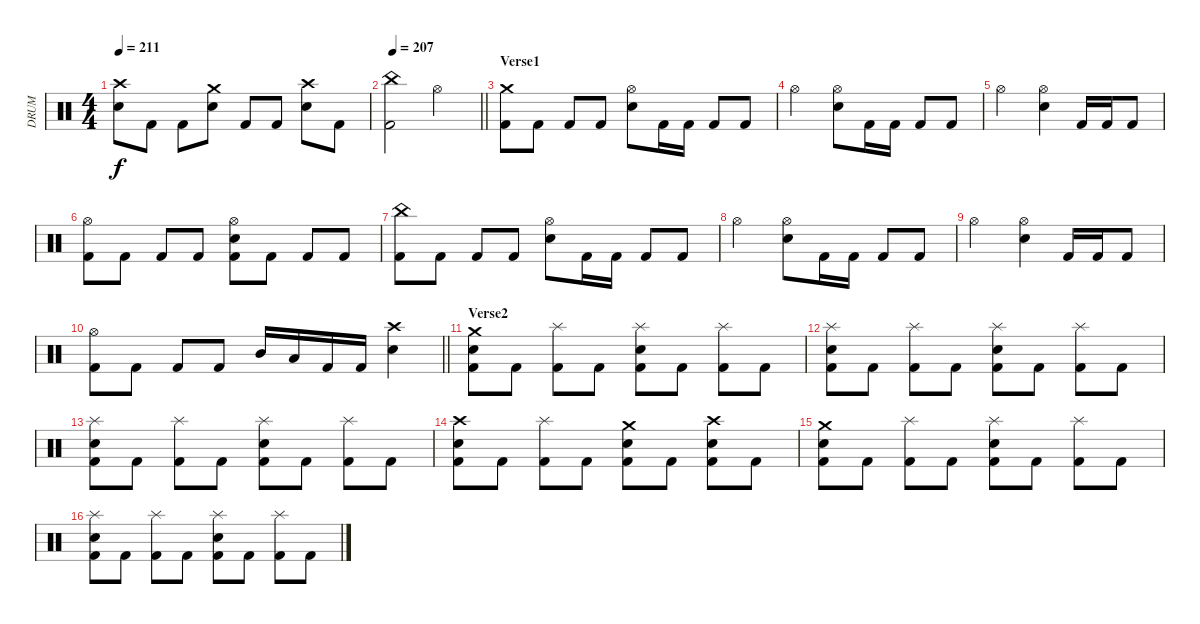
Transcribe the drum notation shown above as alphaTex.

\track ("DRUM" "DRUM") {instrument percussion bank 102}
\staff {score}
\articulation defaults
\ts (4 4)
\tempo 211
\clef neutral
\ks c
("Crash high (hit)" "Electric Snare (hit)").8{dy f} "Kick (hit) 2".8 "Kick (hit) 2".8 ("Crash medium (hit)" "Electric Snare (hit)").8 "Kick (hit) 2".8 "Kick (hit) 2".8 ("Crash high (hit)" "Electric Snare (hit)").8 "Kick (hit) 2".8 |
\tempo 207
\barLineRight lightlight
("China (hit)" "Kick (hit) 2").2 "Hi-Hat (open)".2 |
\section ("" "Verse1")
("Crash medium (hit)" "Kick (hit) 2").8 "Kick (hit) 2".8 "Kick (hit) 2".8 "Kick (hit) 2".8 ("Hi-Hat (open)" "Electric Snare (hit)").8 "Kick (hit) 2".16 "Kick (hit) 2".16 "Kick (hit) 2".8 "Kick (hit) 2".8 |
"Hi-Hat (open)".2 ("Hi-Hat (open)" "Electric Snare (hit)").8 "Kick (hit) 2".16 "Kick (hit) 2".16 "Kick (hit) 2".8 "Kick (hit) 2".8 |
"Hi-Hat (open)".2 ("Hi-Hat (open)" "Electric Snare (hit)").4 "Kick (hit) 2".16 "Kick (hit) 2".16 "Kick (hit) 2".8 |
("Hi-Hat (open)" "Kick (hit) 2").8 "Kick (hit) 2".8 "Kick (hit) 2".8 "Kick (hit) 2".8 ("Hi-Hat (open)" "Electric Snare (hit)" "Kick (hit) 2").8 "Kick (hit) 2".8 "Kick (hit) 2".8 "Kick (hit) 2".8 |
("China (hit)" "Kick (hit) 2").8 "Kick (hit) 2".8 "Kick (hit) 2".8 "Kick (hit) 2".8 ("Hi-Hat (open)" "Electric Snare (hit)").8 "Kick (hit) 2".16 "Kick (hit) 2".16 "Kick (hit) 2".8 "Kick (hit) 2".8 |
"Hi-Hat (open)".2 ("Hi-Hat (open)" "Electric Snare (hit)").8 "Kick (hit) 2".16 "Kick (hit) 2".16 "Kick (hit) 2".8 "Kick (hit) 2".8 |
"Hi-Hat (open)".2 ("Hi-Hat (open)" "Electric Snare (hit)").4 "Kick (hit) 2".16 "Kick (hit) 2".16 "Kick (hit) 2".8 |
\barLineRight lightlight
("Hi-Hat (open)" "Kick (hit) 2").8 "Kick (hit) 2".8 "Kick (hit) 2".8 "Kick (hit) 2".8 "Mid Tom (hit)".16 "Low Tom (hit)".16 "Kick (hit) 2".16 "Kick (hit) 2".16 ("Crash high (hit)" "Electric Snare (hit)").4 |
\section ("" "Verse2")
("Crash medium (hit)" "Electric Snare (hit)" "Kick (hit) 2").8 "Kick (hit) 2".8 ("Splash (hit)" "Kick (hit) 2").8 "Kick (hit) 2".8 ("Splash (hit)" "Electric Snare (hit)" "Kick (hit) 2").8 "Kick (hit) 2".8 ("Splash (hit)" "Kick (hit) 2").8 "Kick (hit) 2".8 |
("Splash (hit)" "Electric Snare (hit)" "Kick (hit) 2").8 "Kick (hit) 2".8 ("Splash (hit)" "Kick (hit) 2").8 "Kick (hit) 2".8 ("Splash (hit)" "Electric Snare (hit)" "Kick (hit) 2").8 "Kick (hit) 2".8 ("Splash (hit)" "Kick (hit) 2").8 "Kick (hit) 2".8 |
("Splash (hit)" "Electric Snare (hit)" "Kick (hit) 2").8 "Kick (hit) 2".8 ("Splash (hit)" "Kick (hit) 2").8 "Kick (hit) 2".8 ("Splash (hit)" "Electric Snare (hit)" "Kick (hit) 2").8 "Kick (hit) 2".8 ("Splash (hit)" "Kick (hit) 2").8 "Kick (hit) 2".8 |
("Crash high (hit)" "Electric Snare (hit)" "Kick (hit) 2").8 "Kick (hit) 2".8 ("Splash (hit)" "Kick (hit) 2").8 "Kick (hit) 2".8 ("Crash medium (hit)" "Electric Snare (hit)" "Kick (hit) 2").8 "Kick (hit) 2".8 ("Crash high (hit)" "Electric Snare (hit)" "Kick (hit) 2").8 "Kick (hit) 2".8 |
("Crash medium (hit)" "Electric Snare (hit)" "Kick (hit) 2").8 "Kick (hit) 2".8 ("Splash (hit)" "Kick (hit) 2").8 "Kick (hit) 2".8 ("Splash (hit)" "Electric Snare (hit)" "Kick (hit) 2").8 "Kick (hit) 2".8 ("Splash (hit)" "Kick (hit) 2").8 "Kick (hit) 2".8 |
("Splash (hit)" "Electric Snare (hit)" "Kick (hit) 2").8 "Kick (hit) 2".8 ("Splash (hit)" "Kick (hit) 2").8 "Kick (hit) 2".8 ("Splash (hit)" "Electric Snare (hit)" "Kick (hit) 2").8 "Kick (hit) 2".8 ("Splash (hit)" "Kick (hit) 2").8 "Kick (hit) 2".8
